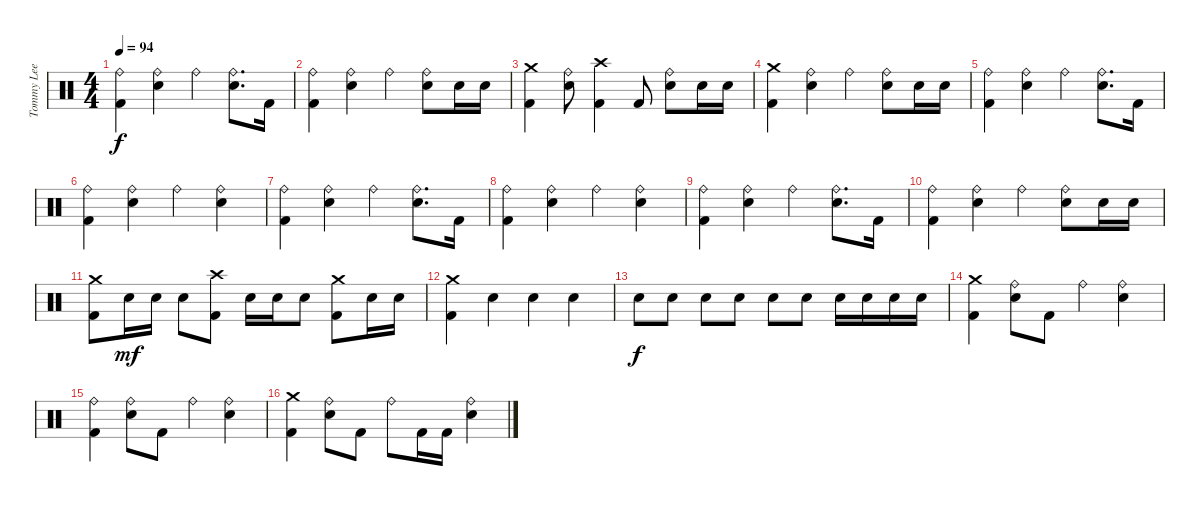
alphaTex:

\track ("Tommy Lee" "Tommy Lee") {instrument percussion}
\staff {score}
\articulation defaults
\ts (4 4)
\tempo 94
\clef neutral
\ks c
("Ride (bell)" "Kick (hit) 2").4{dy f} ("Ride (bell)" "Snare (hit) 2").4 "Ride (bell)".4 ("Ride (bell)" "Snare (hit) 2").8{d} "Kick (hit) 2".16 |
("Ride (bell)" "Kick (hit) 2").4 ("Ride (bell)" "Snare (hit) 2").4 "Ride (bell)".4 ("Ride (bell)" "Snare (hit) 2").8 "Snare (hit) 2".16 "Snare (hit) 2".16 |
("Crash medium (hit)" "Kick (hit) 2").4 ("Ride (bell)" "Snare (hit) 2").8 ("Crash high (hit)" "Kick (hit) 2").4 "Kick (hit) 2".8 ("Ride (bell)" "Snare (hit) 2").8 "Snare (hit) 2".16 "Snare (hit) 2".16 |
("Crash medium (hit)" "Kick (hit) 2").4 ("Ride (bell)" "Snare (hit) 2").4 "Ride (bell)".4 ("Ride (bell)" "Snare (hit) 2").8 "Snare (hit) 2".16 "Snare (hit) 2".16 |
("Ride (bell)" "Kick (hit) 2").4 ("Ride (bell)" "Snare (hit) 2").4 "Ride (bell)".4 ("Ride (bell)" "Snare (hit) 2").8{d} "Kick (hit) 2".16 |
("Ride (bell)" "Kick (hit) 2").4 ("Ride (bell)" "Snare (hit) 2").4 "Ride (bell)".4 ("Ride (bell)" "Snare (hit) 2").4 |
("Ride (bell)" "Kick (hit) 2").4 ("Ride (bell)" "Snare (hit) 2").4 "Ride (bell)".4 ("Ride (bell)" "Snare (hit) 2").8{d} "Kick (hit) 2".16 |
("Ride (bell)" "Kick (hit) 2").4 ("Ride (bell)" "Snare (hit) 2").4 "Ride (bell)".4 ("Ride (bell)" "Snare (hit) 2").4 |
("Ride (bell)" "Kick (hit) 2").4 ("Ride (bell)" "Snare (hit) 2").4 "Ride (bell)".4 ("Ride (bell)" "Snare (hit) 2").8{d} "Kick (hit) 2".16 |
("Ride (bell)" "Kick (hit) 2").4 ("Ride (bell)" "Snare (hit) 2").4 "Ride (bell)".4 ("Ride (bell)" "Snare (hit) 2").8 "Snare (hit) 2".16 "Snare (hit) 2".16 |
("Crash medium (hit)" "Kick (hit) 2").8 "Snare (hit) 2".16{dy mf} "Snare (hit) 2".16 "Snare (hit) 2".8 ("Crash high (hit)" "Kick (hit) 2").8 "Snare (hit) 2".16 "Snare (hit) 2".16 "Snare (hit) 2".8 ("Crash medium (hit)" "Kick (hit) 2").8 "Snare (hit) 2".16 "Snare (hit) 2".16 |
("Crash medium (hit)" "Kick (hit) 2").4 "Snare (hit) 2".4 "Snare (hit) 2".4 "Snare (hit) 2".4 |
"Snare (hit) 2".8{dy f} "Snare (hit) 2".8 "Snare (hit) 2".8 "Snare (hit) 2".8 "Snare (hit) 2".8 "Snare (hit) 2".8 "Snare (hit) 2".16 "Snare (hit) 2".16 "Snare (hit) 2".16 "Snare (hit) 2".16 |
("Crash medium (hit)" "Kick (hit) 2").4 ("Ride (bell)" "Snare (hit) 2").8 "Kick (hit) 2".8 "Ride (bell)".4 ("Ride (bell)" "Snare (hit) 2").4 |
("Ride (bell)" "Kick (hit) 2").4 ("Ride (bell)" "Snare (hit) 2").8 "Kick (hit) 2".8 "Ride (bell)".4 ("Ride (bell)" "Snare (hit) 2").4 |
("Crash medium (hit)" "Kick (hit) 2").4 ("Ride (bell)" "Snare (hit) 2").8 "Kick (hit) 2".8 "Ride (bell)".8 "Kick (hit) 2".16 "Kick (hit) 2".16 ("Ride (bell)" "Snare (hit) 2").4
